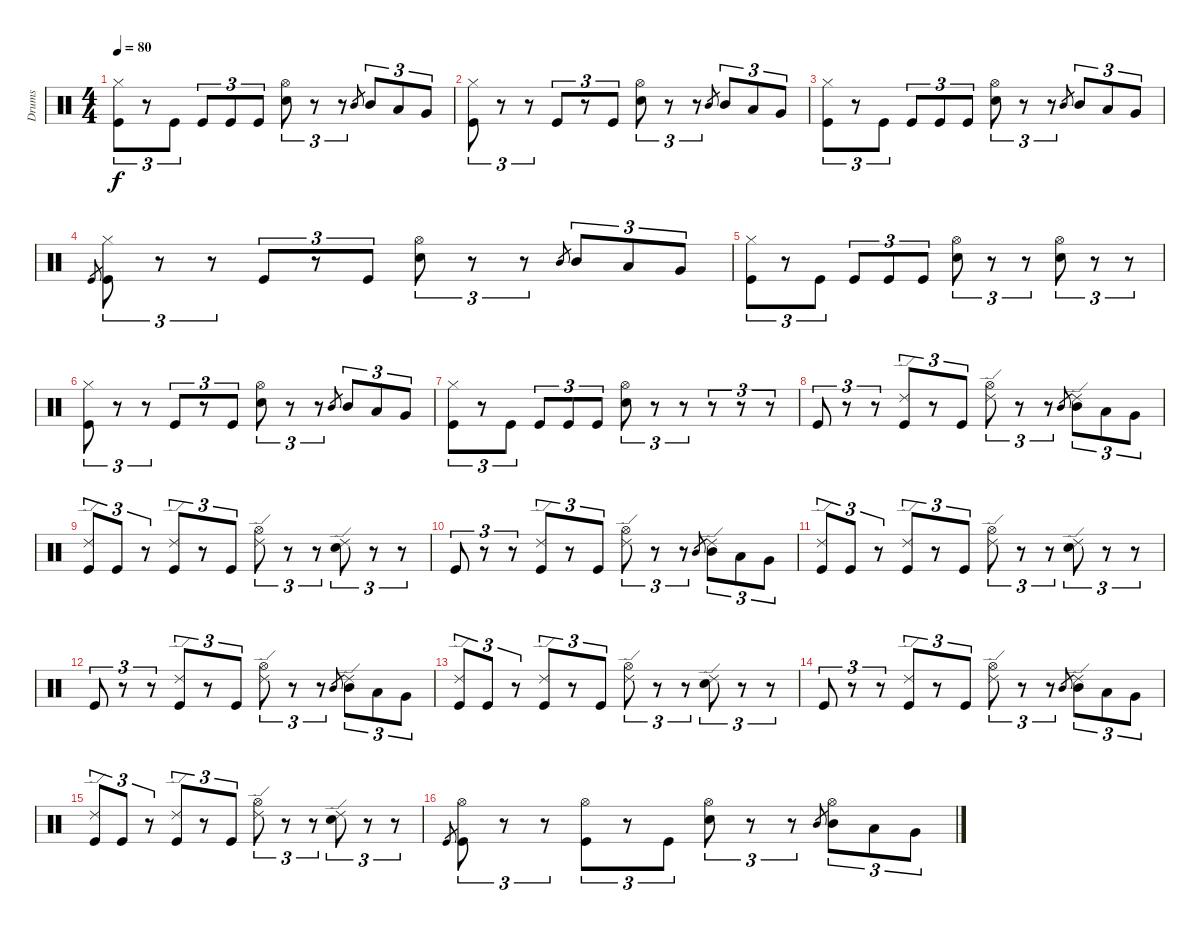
\track ("Drums" "Drums") {instrument percussion}
\staff {score}
\articulation defaults
\ts (4 4)
\tempo 80
\clef neutral
\ks c
("Hi-Hat (closed)" "Kick (hit)").8{tu (3 2) dy f} r.8{tu (3 2)} "Kick (hit)".8{tu (3 2)} "Kick (hit)".8{tu (3 2)} "Kick (hit)".8{tu (3 2)} "Kick (hit)".8{tu (3 2)} ("Hi-Hat (open)" "Snare (hit) 2").8{tu (3 2)} r.8{tu (3 2)} r.8{tu (3 2)} "Mid Tom (hit)".8{gr} "Mid Tom (hit)".8{tu (3 2)} "Low Tom (hit)".8{tu (3 2)} "Very Low Tom (hit)".8{tu (3 2)} |
("Hi-Hat (closed)" "Kick (hit)").8{tu (3 2)} r.8{tu (3 2)} r.8{tu (3 2)} "Kick (hit)".8{tu (3 2)} r.8{tu (3 2)} "Kick (hit)".8{tu (3 2)} ("Hi-Hat (open)" "Snare (hit) 2").8{tu (3 2)} r.8{tu (3 2)} r.8{tu (3 2)} "Mid Tom (hit)".8{gr} "Mid Tom (hit)".8{tu (3 2)} "Low Tom (hit)".8{tu (3 2)} "Very Low Tom (hit)".8{tu (3 2)} |
("Hi-Hat (closed)" "Kick (hit)").8{tu (3 2)} r.8{tu (3 2)} "Kick (hit)".8{tu (3 2)} "Kick (hit)".8{tu (3 2)} "Kick (hit)".8{tu (3 2)} "Kick (hit)".8{tu (3 2)} ("Hi-Hat (open)" "Snare (hit) 2").8{tu (3 2)} r.8{tu (3 2)} r.8{tu (3 2)} "Mid Tom (hit)".8{gr} "Mid Tom (hit)".8{tu (3 2)} "Low Tom (hit)".8{tu (3 2)} "Very Low Tom (hit)".8{tu (3 2)} |
"Kick (hit)".8{gr} ("Hi-Hat (closed)" "Kick (hit)").8{tu (3 2)} r.8{tu (3 2)} r.8{tu (3 2)} "Kick (hit)".8{tu (3 2)} r.8{tu (3 2)} "Kick (hit)".8{tu (3 2)} ("Hi-Hat (open)" "Snare (hit) 2").8{tu (3 2)} r.8{tu (3 2)} r.8{tu (3 2)} "Mid Tom (hit)".8{gr} "Mid Tom (hit)".8{tu (3 2)} "Low Tom (hit)".8{tu (3 2)} "Very Low Tom (hit)".8{tu (3 2)} |
("Hi-Hat (closed)" "Kick (hit)").8{tu (3 2)} r.8{tu (3 2)} "Kick (hit)".8{tu (3 2)} "Kick (hit)".8{tu (3 2)} "Kick (hit)".8{tu (3 2)} "Kick (hit)".8{tu (3 2)} ("Hi-Hat (open)" "Snare (hit) 2").8{tu (3 2)} r.8{tu (3 2)} r.8{tu (3 2)} ("Hi-Hat (open)" "Snare (hit) 2").8{tu (3 2)} r.8{tu (3 2)} r.8{tu (3 2)} |
("Hi-Hat (closed)" "Kick (hit)").8{tu (3 2)} r.8{tu (3 2)} r.8{tu (3 2)} "Kick (hit)".8{tu (3 2)} r.8{tu (3 2)} "Kick (hit)".8{tu (3 2)} ("Hi-Hat (open)" "Snare (hit) 2").8{tu (3 2)} r.8{tu (3 2)} r.8{tu (3 2)} "Mid Tom (hit)".8{gr} "Mid Tom (hit)".8{tu (3 2)} "Low Tom (hit)".8{tu (3 2)} "Very Low Tom (hit)".8{tu (3 2)} |
("Hi-Hat (closed)" "Kick (hit)").8{tu (3 2)} r.8{tu (3 2)} "Kick (hit)".8{tu (3 2)} "Kick (hit)".8{tu (3 2)} "Kick (hit)".8{tu (3 2)} "Kick (hit)".8{tu (3 2)} ("Hi-Hat (open)" "Snare (hit) 2").8{tu (3 2)} r.8{tu (3 2)} r.8{tu (3 2)} r.8{tu (3 2)} r.8{tu (3 2)} r.8{tu (3 2)} |
"Kick (hit)".8{tu (3 2)} r.8{tu (3 2)} r.8{tu (3 2)} ("Ride (edge) 2" "Kick (hit)").8{tu (3 2)} r.8{tu (3 2)} "Kick (hit)".8{tu (3 2)} ("Hi-Hat (open)" "Ride (edge) 2").8{tu (3 2)} r.8{tu (3 2)} r.8{tu (3 2)} "Mid Tom (hit)".8{gr} ("Ride (edge) 2" "Mid Tom (hit)").8{tu (3 2)} "Low Tom (hit)".8{tu (3 2)} "Very Low Tom (hit)".8{tu (3 2)} |
("Ride (edge) 2" "Kick (hit)").8{tu (3 2)} "Kick (hit)".8{tu (3 2)} r.8{tu (3 2)} ("Ride (edge) 2" "Kick (hit)").8{tu (3 2)} r.8{tu (3 2)} "Kick (hit)".8{tu (3 2)} ("Hi-Hat (open)" "Ride (edge) 2").8{tu (3 2)} r.8{tu (3 2)} r.8{tu (3 2)} ("Ride (edge) 2" "Snare (hit) 2").8{tu (3 2)} r.8{tu (3 2)} r.8{tu (3 2)} |
"Kick (hit)".8{tu (3 2)} r.8{tu (3 2)} r.8{tu (3 2)} ("Ride (edge) 2" "Kick (hit)").8{tu (3 2)} r.8{tu (3 2)} "Kick (hit)".8{tu (3 2)} ("Hi-Hat (open)" "Ride (edge) 2").8{tu (3 2)} r.8{tu (3 2)} r.8{tu (3 2)} "Mid Tom (hit)".8{gr} ("Ride (edge) 2" "Mid Tom (hit)").8{tu (3 2)} "Low Tom (hit)".8{tu (3 2)} "Very Low Tom (hit)".8{tu (3 2)} |
("Ride (edge) 2" "Kick (hit)").8{tu (3 2)} "Kick (hit)".8{tu (3 2)} r.8{tu (3 2)} ("Ride (edge) 2" "Kick (hit)").8{tu (3 2)} r.8{tu (3 2)} "Kick (hit)".8{tu (3 2)} ("Hi-Hat (open)" "Ride (edge) 2").8{tu (3 2)} r.8{tu (3 2)} r.8{tu (3 2)} ("Ride (edge) 2" "Snare (hit) 2").8{tu (3 2)} r.8{tu (3 2)} r.8{tu (3 2)} |
"Kick (hit)".8{tu (3 2)} r.8{tu (3 2)} r.8{tu (3 2)} ("Ride (edge) 2" "Kick (hit)").8{tu (3 2)} r.8{tu (3 2)} "Kick (hit)".8{tu (3 2)} ("Hi-Hat (open)" "Ride (edge) 2").8{tu (3 2)} r.8{tu (3 2)} r.8{tu (3 2)} "Mid Tom (hit)".8{gr} ("Ride (edge) 2" "Mid Tom (hit)").8{tu (3 2)} "Low Tom (hit)".8{tu (3 2)} "Very Low Tom (hit)".8{tu (3 2)} |
("Ride (edge) 2" "Kick (hit)").8{tu (3 2)} "Kick (hit)".8{tu (3 2)} r.8{tu (3 2)} ("Ride (edge) 2" "Kick (hit)").8{tu (3 2)} r.8{tu (3 2)} "Kick (hit)".8{tu (3 2)} ("Hi-Hat (open)" "Ride (edge) 2").8{tu (3 2)} r.8{tu (3 2)} r.8{tu (3 2)} ("Ride (edge) 2" "Snare (hit) 2").8{tu (3 2)} r.8{tu (3 2)} r.8{tu (3 2)} |
"Kick (hit)".8{tu (3 2)} r.8{tu (3 2)} r.8{tu (3 2)} ("Ride (edge) 2" "Kick (hit)").8{tu (3 2)} r.8{tu (3 2)} "Kick (hit)".8{tu (3 2)} ("Hi-Hat (open)" "Ride (edge) 2").8{tu (3 2)} r.8{tu (3 2)} r.8{tu (3 2)} "Mid Tom (hit)".8{gr} ("Ride (edge) 2" "Mid Tom (hit)").8{tu (3 2)} "Low Tom (hit)".8{tu (3 2)} "Very Low Tom (hit)".8{tu (3 2)} |
("Ride (edge) 2" "Kick (hit)").8{tu (3 2)} "Kick (hit)".8{tu (3 2)} r.8{tu (3 2)} ("Ride (edge) 2" "Kick (hit)").8{tu (3 2)} r.8{tu (3 2)} "Kick (hit)".8{tu (3 2)} ("Hi-Hat (open)" "Ride (edge) 2").8{tu (3 2)} r.8{tu (3 2)} r.8{tu (3 2)} ("Ride (edge) 2" "Snare (hit) 2").8{tu (3 2)} r.8{tu (3 2)} r.8{tu (3 2)} |
"Kick (hit)".8{gr} ("Hi-Hat (open)" "Kick (hit)").8{tu (3 2)} r.8{tu (3 2)} r.8{tu (3 2)} ("Hi-Hat (open)" "Kick (hit)").8{tu (3 2)} r.8{tu (3 2)} "Kick (hit)".8{tu (3 2)} ("Hi-Hat (open)" "Snare (hit) 2").8{tu (3 2)} r.8{tu (3 2)} r.8{tu (3 2)} "Mid Tom (hit)".8{gr} ("Hi-Hat (open)" "Mid Tom (hit)").8{tu (3 2)} "Low Tom (hit)".8{tu (3 2)} "Very Low Tom (hit)".8{tu (3 2)}
